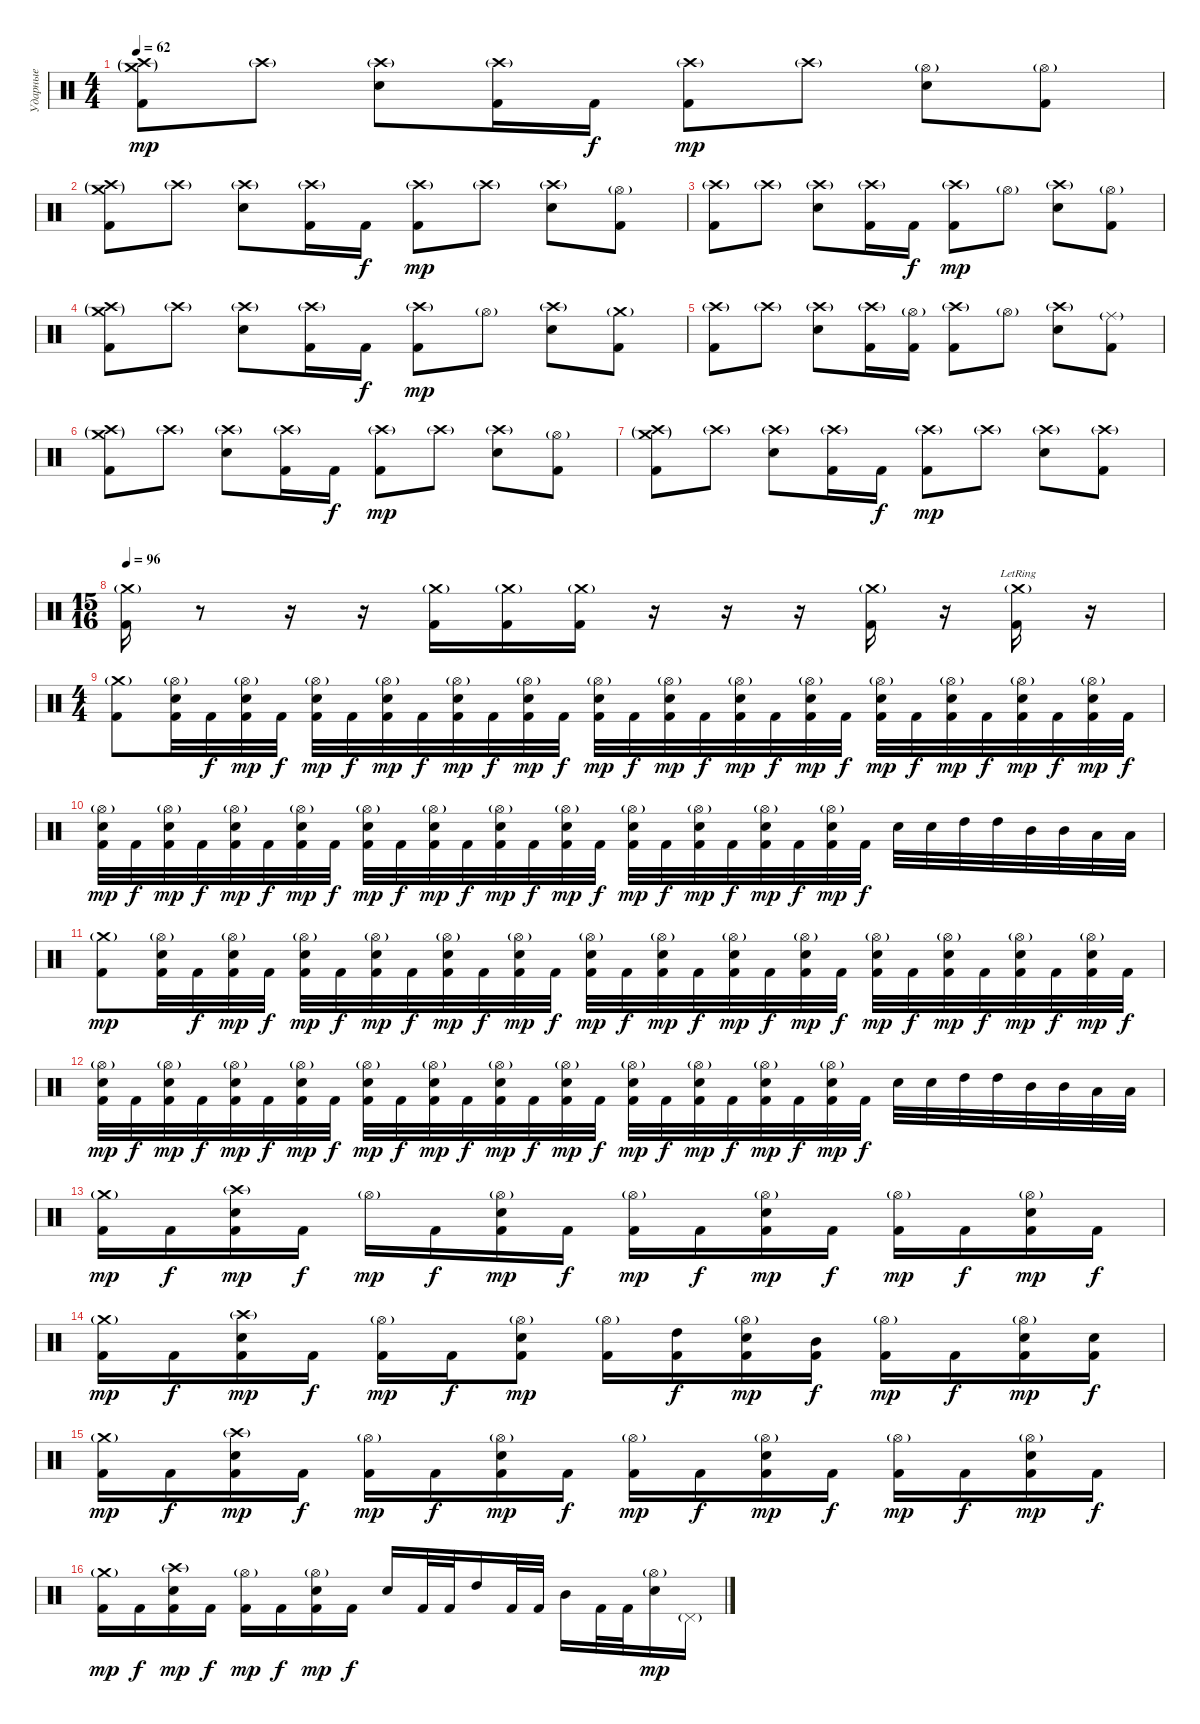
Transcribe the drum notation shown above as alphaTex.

\track ("Ударные" "Ударные") {instrument percussion}
\staff {score}
\articulation defaults
\ts (4 4)
\tempo 62
\clef neutral
\ks c
("Crash high (hit)"{g} "Crash medium (hit)"{g} "Kick (hit) 2").8{dy mp} "Crash high (hit)"{g}.8 ("Crash high (hit)"{g} "Electric Snare (hit)").8 ("Crash high (hit)"{g} "Kick (hit) 2").16 "Kick (hit) 2".16{dy f} ("Crash high (hit)"{g} "Kick (hit) 2").8{dy mp} "Crash high (hit)"{g}.8 ("Hi-Hat (open)"{g} "Electric Snare (hit)").8 ("Hi-Hat (open)"{g} "Kick (hit) 2").8 |
("Crash high (hit)"{g} "Crash medium (hit)"{g} "Kick (hit) 2").8 "Crash high (hit)"{g}.8 ("Crash high (hit)"{g} "Electric Snare (hit)").8 ("Crash high (hit)"{g} "Kick (hit) 2").16 "Kick (hit) 2".16{dy f} ("Crash high (hit)"{g} "Kick (hit) 2").8{dy mp} "Crash high (hit)"{g}.8 ("Crash high (hit)"{g} "Electric Snare (hit)").8 ("Hi-Hat (open)"{g} "Kick (hit) 2").8 |
("Crash high (hit)"{g} "Kick (hit) 2").8 "Crash high (hit)"{g}.8 ("Crash high (hit)"{g} "Electric Snare (hit)").8 ("Crash high (hit)"{g} "Kick (hit) 2").16 "Kick (hit) 2".16{dy f} ("Crash high (hit)"{g} "Kick (hit) 2").8{dy mp} "Hi-Hat (open)"{g}.8 ("Crash high (hit)"{g} "Electric Snare (hit)").8 ("Hi-Hat (open)"{g} "Kick (hit) 2").8 |
("Crash high (hit)"{g} "Crash medium (hit)"{g} "Kick (hit) 2").8 "Crash high (hit)"{g}.8 ("Crash high (hit)"{g} "Electric Snare (hit)").8 ("Crash high (hit)"{g} "Kick (hit) 2").16 "Kick (hit) 2".16{dy f} ("Crash high (hit)"{g} "Kick (hit) 2").8{dy mp} "Hi-Hat (open)"{g}.8 ("Crash high (hit)"{g} "Electric Snare (hit)").8 ("Crash medium (hit)"{g} "Kick (hit) 2").8 |
("Crash high (hit)"{g} "Kick (hit) 2").8 "Crash high (hit)"{g}.8 ("Crash high (hit)"{g} "Electric Snare (hit)").8 ("Crash high (hit)"{g} "Kick (hit) 2").16 ("Hi-Hat (open)"{g} "Kick (hit) 2").16 ("Crash high (hit)"{g} "Kick (hit) 2").8 "Hi-Hat (open)"{g}.8 ("Crash high (hit)"{g} "Electric Snare (hit)").8 ("Ride (middle)"{g} "Kick (hit) 2").8 |
("Crash high (hit)"{g} "Crash medium (hit)"{g} "Kick (hit) 2").8 "Crash high (hit)"{g}.8 ("Crash high (hit)"{g} "Electric Snare (hit)").8 ("Crash high (hit)"{g} "Kick (hit) 2").16 "Kick (hit) 2".16{dy f} ("Crash high (hit)"{g} "Kick (hit) 2").8{dy mp} "Crash high (hit)"{g}.8 ("Crash high (hit)"{g} "Electric Snare (hit)").8 ("Hi-Hat (open)"{g} "Kick (hit) 2").8 |
("Crash high (hit)"{g} "Crash medium (hit)"{g} "Kick (hit) 2").8 "Crash high (hit)"{g}.8 ("Crash high (hit)"{g} "Electric Snare (hit)").8 ("Crash high (hit)"{g} "Kick (hit) 2").16 "Kick (hit) 2".16{dy f} ("Crash high (hit)"{g} "Kick (hit) 2").8{dy mp} "Crash high (hit)"{g}.8 ("Crash high (hit)"{g} "Electric Snare (hit)").8 ("Crash high (hit)"{g} "Kick (hit) 2").8 |
\ts (15 16)
\tempo 96
("Crash medium (hit)"{g} "Kick (hit) 2").16 r.8{volume 0} r.16 r.16 ("Crash medium (hit)"{g} "Kick (hit) 2").16{volume 16} ("Crash medium (hit)"{g} "Kick (hit) 2").16 ("Crash medium (hit)"{g} "Kick (hit) 2").16 r.16{volume 0} r.16 r.16 ("Crash medium (hit)"{g} "Kick (hit) 2").16{volume 16} r.16{volume 0} ("Crash medium (hit)"{g lr} "Kick (hit) 2").16{volume 16} r.16{volume 0} |
\ts (4 4)
("Crash medium (hit)"{g} "Kick (hit) 2").8{volume 16} ("Hi-Hat (open)"{g} "Electric Snare (hit)" "Kick (hit) 2").32 "Kick (hit) 2".32{dy f} ("Hi-Hat (open)"{g} "Electric Snare (hit)" "Kick (hit) 2").32{dy mp} "Kick (hit) 2".32{dy f} ("Hi-Hat (open)"{g} "Electric Snare (hit)" "Kick (hit) 2").32{dy mp} "Kick (hit) 2".32{dy f} ("Hi-Hat (open)"{g} "Electric Snare (hit)" "Kick (hit) 2").32{dy mp} "Kick (hit) 2".32{dy f} ("Hi-Hat (open)"{g} "Electric Snare (hit)" "Kick (hit) 2").32{dy mp} "Kick (hit) 2".32{dy f} ("Hi-Hat (open)"{g} "Electric Snare (hit)" "Kick (hit) 2").32{dy mp} "Kick (hit) 2".32{dy f} ("Hi-Hat (open)"{g} "Electric Snare (hit)" "Kick (hit) 2").32{dy mp} "Kick (hit) 2".32{dy f} ("Hi-Hat (open)"{g} "Electric Snare (hit)" "Kick (hit) 2").32{dy mp} "Kick (hit) 2".32{dy f} ("Hi-Hat (open)"{g} "Electric Snare (hit)" "Kick (hit) 2").32{dy mp} "Kick (hit) 2".32{dy f} ("Hi-Hat (open)"{g} "Electric Snare (hit)" "Kick (hit) 2").32{dy mp} "Kick (hit) 2".32{dy f} ("Hi-Hat (open)"{g} "Electric Snare (hit)" "Kick (hit) 2").32{dy mp} "Kick (hit) 2".32{dy f} ("Hi-Hat (open)"{g} "Electric Snare (hit)" "Kick (hit) 2").32{dy mp} "Kick (hit) 2".32{dy f} ("Hi-Hat (open)"{g} "Electric Snare (hit)" "Kick (hit) 2").32{dy mp} "Kick (hit) 2".32{dy f} ("Hi-Hat (open)"{g} "Electric Snare (hit)" "Kick (hit) 2").32{dy mp} "Kick (hit) 2".32{dy f} |
("Hi-Hat (open)"{g} "Electric Snare (hit)" "Kick (hit) 2").32{dy mp} "Kick (hit) 2".32{dy f} ("Hi-Hat (open)"{g} "Electric Snare (hit)" "Kick (hit) 2").32{dy mp} "Kick (hit) 2".32{dy f} ("Hi-Hat (open)"{g} "Electric Snare (hit)" "Kick (hit) 2").32{dy mp} "Kick (hit) 2".32{dy f} ("Hi-Hat (open)"{g} "Electric Snare (hit)" "Kick (hit) 2").32{dy mp} "Kick (hit) 2".32{dy f} ("Hi-Hat (open)"{g} "Electric Snare (hit)" "Kick (hit) 2").32{dy mp} "Kick (hit) 2".32{dy f} ("Hi-Hat (open)"{g} "Electric Snare (hit)" "Kick (hit) 2").32{dy mp} "Kick (hit) 2".32{dy f} ("Hi-Hat (open)"{g} "Electric Snare (hit)" "Kick (hit) 2").32{dy mp} "Kick (hit) 2".32{dy f} ("Hi-Hat (open)"{g} "Electric Snare (hit)" "Kick (hit) 2").32{dy mp} "Kick (hit) 2".32{dy f} ("Hi-Hat (open)"{g} "Electric Snare (hit)" "Kick (hit) 2").32{dy mp} "Kick (hit) 2".32{dy f} ("Hi-Hat (open)"{g} "Electric Snare (hit)" "Kick (hit) 2").32{dy mp} "Kick (hit) 2".32{dy f} ("Hi-Hat (open)"{g} "Electric Snare (hit)" "Kick (hit) 2").32{dy mp} "Kick (hit) 2".32{dy f} ("Hi-Hat (open)"{g} "Electric Snare (hit)" "Kick (hit) 2").32{dy mp} "Kick (hit) 2".32{dy f} "Electric Snare (hit)".32 "Electric Snare (hit)".32 "High Tom (hit)".32 "High Tom (hit)".32 "Mid Tom (hit)".32 "Mid Tom (hit)".32 "Low Tom (hit)".32 "Low Tom (hit)".32 |
("Crash medium (hit)"{g} "Kick (hit) 2").8{dy mp} ("Hi-Hat (open)"{g} "Electric Snare (hit)" "Kick (hit) 2").32 "Kick (hit) 2".32{dy f} ("Hi-Hat (open)"{g} "Electric Snare (hit)" "Kick (hit) 2").32{dy mp} "Kick (hit) 2".32{dy f} ("Hi-Hat (open)"{g} "Electric Snare (hit)" "Kick (hit) 2").32{dy mp} "Kick (hit) 2".32{dy f} ("Hi-Hat (open)"{g} "Electric Snare (hit)" "Kick (hit) 2").32{dy mp} "Kick (hit) 2".32{dy f} ("Hi-Hat (open)"{g} "Electric Snare (hit)" "Kick (hit) 2").32{dy mp} "Kick (hit) 2".32{dy f} ("Hi-Hat (open)"{g} "Electric Snare (hit)" "Kick (hit) 2").32{dy mp} "Kick (hit) 2".32{dy f} ("Hi-Hat (open)"{g} "Electric Snare (hit)" "Kick (hit) 2").32{dy mp} "Kick (hit) 2".32{dy f} ("Hi-Hat (open)"{g} "Electric Snare (hit)" "Kick (hit) 2").32{dy mp} "Kick (hit) 2".32{dy f} ("Hi-Hat (open)"{g} "Electric Snare (hit)" "Kick (hit) 2").32{dy mp} "Kick (hit) 2".32{dy f} ("Hi-Hat (open)"{g} "Electric Snare (hit)" "Kick (hit) 2").32{dy mp} "Kick (hit) 2".32{dy f} ("Hi-Hat (open)"{g} "Electric Snare (hit)" "Kick (hit) 2").32{dy mp} "Kick (hit) 2".32{dy f} ("Hi-Hat (open)"{g} "Electric Snare (hit)" "Kick (hit) 2").32{dy mp} "Kick (hit) 2".32{dy f} ("Hi-Hat (open)"{g} "Electric Snare (hit)" "Kick (hit) 2").32{dy mp} "Kick (hit) 2".32{dy f} ("Hi-Hat (open)"{g} "Electric Snare (hit)" "Kick (hit) 2").32{dy mp} "Kick (hit) 2".32{dy f} |
("Hi-Hat (open)"{g} "Electric Snare (hit)" "Kick (hit) 2").32{dy mp} "Kick (hit) 2".32{dy f} ("Hi-Hat (open)"{g} "Electric Snare (hit)" "Kick (hit) 2").32{dy mp} "Kick (hit) 2".32{dy f} ("Hi-Hat (open)"{g} "Electric Snare (hit)" "Kick (hit) 2").32{dy mp} "Kick (hit) 2".32{dy f} ("Hi-Hat (open)"{g} "Electric Snare (hit)" "Kick (hit) 2").32{dy mp} "Kick (hit) 2".32{dy f} ("Hi-Hat (open)"{g} "Electric Snare (hit)" "Kick (hit) 2").32{dy mp} "Kick (hit) 2".32{dy f} ("Hi-Hat (open)"{g} "Electric Snare (hit)" "Kick (hit) 2").32{dy mp} "Kick (hit) 2".32{dy f} ("Hi-Hat (open)"{g} "Electric Snare (hit)" "Kick (hit) 2").32{dy mp} "Kick (hit) 2".32{dy f} ("Hi-Hat (open)"{g} "Electric Snare (hit)" "Kick (hit) 2").32{dy mp} "Kick (hit) 2".32{dy f} ("Hi-Hat (open)"{g} "Electric Snare (hit)" "Kick (hit) 2").32{dy mp} "Kick (hit) 2".32{dy f} ("Hi-Hat (open)"{g} "Electric Snare (hit)" "Kick (hit) 2").32{dy mp} "Kick (hit) 2".32{dy f} ("Hi-Hat (open)"{g} "Electric Snare (hit)" "Kick (hit) 2").32{dy mp} "Kick (hit) 2".32{dy f} ("Hi-Hat (open)"{g} "Electric Snare (hit)" "Kick (hit) 2").32{dy mp} "Kick (hit) 2".32{dy f} "Electric Snare (hit)".32 "Electric Snare (hit)".32 "High Tom (hit)".32 "High Tom (hit)".32 "Mid Tom (hit)".32 "Mid Tom (hit)".32 "Low Tom (hit)".32 "Low Tom (hit)".32 |
("Crash medium (hit)"{g} "Kick (hit) 2").16{dy mp} "Kick (hit) 2".16{dy f} ("Crash high (hit)"{g} "Electric Snare (hit)" "Kick (hit) 2").16{dy mp} "Kick (hit) 2".16{dy f} "Hi-Hat (open)"{g}.16{dy mp} "Kick (hit) 2".16{dy f} ("Hi-Hat (open)"{g} "Electric Snare (hit)" "Kick (hit) 2").16{dy mp} "Kick (hit) 2".16{dy f} ("Hi-Hat (open)"{g} "Kick (hit) 2").16{dy mp} "Kick (hit) 2".16{dy f} ("Hi-Hat (open)"{g} "Electric Snare (hit)" "Kick (hit) 2").16{dy mp} "Kick (hit) 2".16{dy f} ("Hi-Hat (open)"{g} "Kick (hit) 2").16{dy mp} "Kick (hit) 2".16{dy f} ("Hi-Hat (open)"{g} "Electric Snare (hit)" "Kick (hit) 2").16{dy mp} "Kick (hit) 2".16{dy f} |
("Crash medium (hit)"{g} "Kick (hit) 2").16{dy mp} "Kick (hit) 2".16{dy f} ("Crash high (hit)"{g} "Electric Snare (hit)" "Kick (hit) 2").16{dy mp} "Kick (hit) 2".16{dy f} ("Hi-Hat (open)"{g} "Kick (hit) 2").16{dy mp} "Kick (hit) 2".16{dy f} ("Hi-Hat (open)"{g} "Electric Snare (hit)" "Kick (hit) 2").8{dy mp} ("Hi-Hat (open)"{g} "Kick (hit) 2").16 ("High Tom (hit)" "Kick (hit) 2").16{dy f} ("Hi-Hat (open)"{g} "Electric Snare (hit)" "Kick (hit) 2").16{dy mp} ("Mid Tom (hit)" "Kick (hit) 2").16{dy f} ("Hi-Hat (open)"{g} "Kick (hit) 2").16{dy mp} "Kick (hit) 2".16{dy f} ("Hi-Hat (open)"{g} "Electric Snare (hit)" "Kick (hit) 2").16{dy mp} ("Electric Snare (hit)" "Kick (hit) 2").16{dy f} |
("Crash medium (hit)"{g} "Kick (hit) 2").16{dy mp} "Kick (hit) 2".16{dy f} ("Crash high (hit)"{g} "Electric Snare (hit)" "Kick (hit) 2").16{dy mp} "Kick (hit) 2".16{dy f} ("Hi-Hat (open)"{g} "Kick (hit) 2").16{dy mp} "Kick (hit) 2".16{dy f} ("Hi-Hat (open)"{g} "Electric Snare (hit)" "Kick (hit) 2").16{dy mp} "Kick (hit) 2".16{dy f} ("Hi-Hat (open)"{g} "Kick (hit) 2").16{dy mp} "Kick (hit) 2".16{dy f} ("Hi-Hat (open)"{g} "Electric Snare (hit)" "Kick (hit) 2").16{dy mp} "Kick (hit) 2".16{dy f} ("Hi-Hat (open)"{g} "Kick (hit) 2").16{dy mp} "Kick (hit) 2".16{dy f} ("Hi-Hat (open)"{g} "Electric Snare (hit)" "Kick (hit) 2").16{dy mp} "Kick (hit) 2".16{dy f} |
("Crash medium (hit)"{g} "Kick (hit) 2").16{dy mp} "Kick (hit) 2".16{dy f} ("Crash high (hit)"{g} "Electric Snare (hit)" "Kick (hit) 2").16{dy mp} "Kick (hit) 2".16{dy f} ("Hi-Hat (open)"{g} "Kick (hit) 2").16{dy mp} "Kick (hit) 2".16{dy f} ("Hi-Hat (open)"{g} "Electric Snare (hit)" "Kick (hit) 2").16{dy mp} "Kick (hit) 2".16{dy f} "Electric Snare (hit)".16 "Kick (hit) 2".32 "Kick (hit) 2".32 "High Tom (hit)".16 "Kick (hit) 2".32 "Kick (hit) 2".32 "Mid Tom (hit)".16 "Kick (hit) 2".32 "Kick (hit) 2".32 ("Hi-Hat (open)"{g} "Electric Snare (hit)").16{dy mp} "Pedal Hi-Hat (hit)"{g}.16{volume 4}
